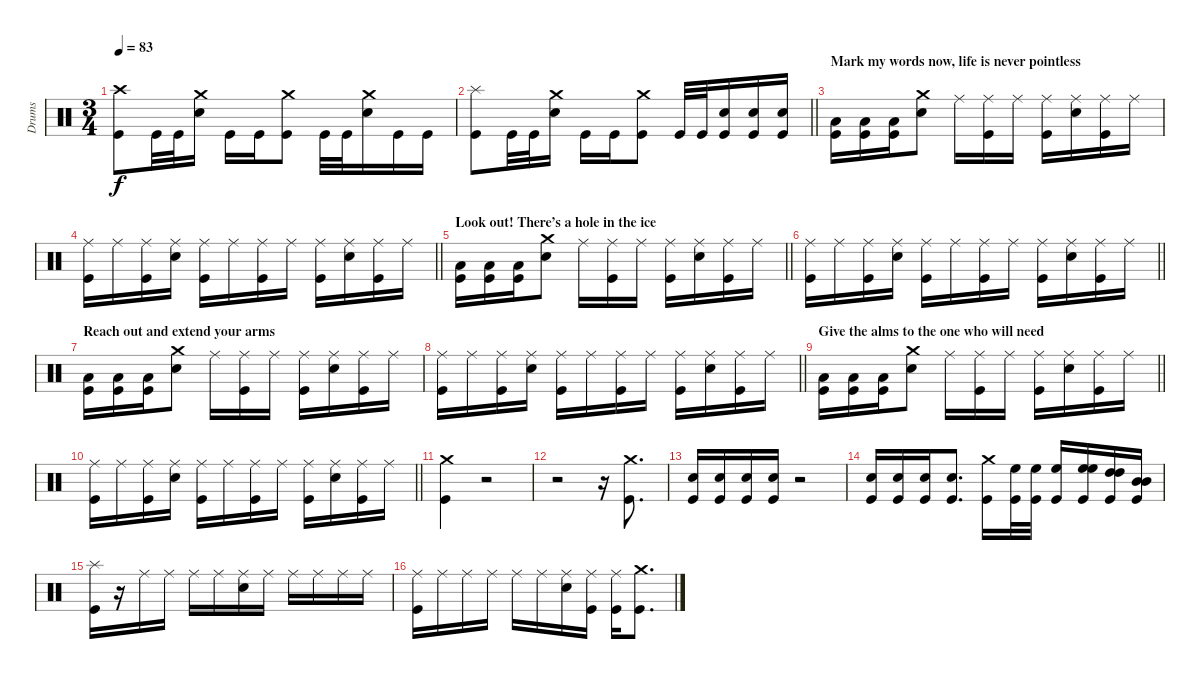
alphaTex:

\track ("Drums" "Drums") {instrument percussion}
\staff {score}
\articulation defaults
\ts (3 4)
\tempo 83
\clef neutral
\ks c
("Crash high (hit)" "Kick (hit)").8{dy f} "Kick (hit)".32 "Kick (hit)".32 ("Crash medium (hit)" "Snare (hit) 2").16 "Kick (hit)".16 "Kick (hit)".16 ("Crash medium (hit)" "Kick (hit)").8 "Kick (hit)".32 "Kick (hit)".32 ("Crash medium (hit)" "Snare (hit) 2").16 "Kick (hit)".16 "Kick (hit)".16 |
\barLineRight lightlight
("Splash (hit)" "Kick (hit)").8 "Kick (hit)".32 "Kick (hit)".32 ("Crash medium (hit)" "Snare (hit) 2").16 "Kick (hit)".16 "Kick (hit)".16 ("Crash medium (hit)" "Kick (hit)").8 "Kick (hit)".32 "Kick (hit)".32 ("Snare (hit) 2" "Kick (hit)").16 ("Snare (hit) 2" "Kick (hit)").16 ("Snare (hit) 2" "Kick (hit)").16 |
\section ("" "Mark my words now, life is never pointless")
("Low Tom (hit)" "Kick (hit)").16 ("Low Tom (hit)" "Kick (hit)").16 ("Low Tom (hit)" "Kick (hit)").16 ("Crash medium (hit)" "Snare (hit) 2").8 "Ride (middle)".16 ("Ride (middle)" "Kick (hit)").16 "Ride (middle)".16 ("Ride (middle)" "Kick (hit)").16 ("Ride (middle)" "Snare (hit) 2").16 ("Ride (middle)" "Kick (hit)").16 "Ride (middle)".16 |
\barLineRight lightlight
("Ride (middle)" "Kick (hit)").16 "Ride (middle)".16 ("Ride (middle)" "Kick (hit)").16 ("Ride (middle)" "Snare (hit) 2").16 ("Ride (middle)" "Kick (hit)").16 "Ride (middle)".16 ("Ride (middle)" "Kick (hit)").16 "Ride (middle)".16 ("Ride (middle)" "Kick (hit)").16 ("Ride (middle)" "Snare (hit) 2").16 ("Ride (middle)" "Kick (hit)").16 "Ride (middle)".16 |
\section ("" "Look out! There’s a hole in the ice")
\barLineRight lightlight
("Low Tom (hit)" "Kick (hit)").16 ("Low Tom (hit)" "Kick (hit)").16 ("Low Tom (hit)" "Kick (hit)").16 ("Crash medium (hit)" "Snare (hit) 2").8 "Ride (middle)".16 ("Ride (middle)" "Kick (hit)").16 "Ride (middle)".16 ("Ride (middle)" "Kick (hit)").16 ("Ride (middle)" "Snare (hit) 2").16 ("Ride (middle)" "Kick (hit)").16 "Ride (middle)".16 |
\barLineRight lightlight
("Ride (middle)" "Kick (hit)").16 "Ride (middle)".16 ("Ride (middle)" "Kick (hit)").16 ("Ride (middle)" "Snare (hit) 2").16 ("Ride (middle)" "Kick (hit)").16 "Ride (middle)".16 ("Ride (middle)" "Kick (hit)").16 "Ride (middle)".16 ("Ride (middle)" "Kick (hit)").16 ("Ride (middle)" "Snare (hit) 2").16 ("Ride (middle)" "Kick (hit)").16 "Ride (middle)".16 |
\section ("" "Reach out and extend your arms")
("Low Tom (hit)" "Kick (hit)").16 ("Low Tom (hit)" "Kick (hit)").16 ("Low Tom (hit)" "Kick (hit)").16 ("Crash medium (hit)" "Snare (hit) 2").8 "Ride (middle)".16 ("Ride (middle)" "Kick (hit)").16 "Ride (middle)".16 ("Ride (middle)" "Kick (hit)").16 ("Ride (middle)" "Snare (hit) 2").16 ("Ride (middle)" "Kick (hit)").16 "Ride (middle)".16 |
\barLineRight lightlight
("Ride (middle)" "Kick (hit)").16 "Ride (middle)".16 ("Ride (middle)" "Kick (hit)").16 ("Ride (middle)" "Snare (hit) 2").16 ("Ride (middle)" "Kick (hit)").16 "Ride (middle)".16 ("Ride (middle)" "Kick (hit)").16 "Ride (middle)".16 ("Ride (middle)" "Kick (hit)").16 ("Ride (middle)" "Snare (hit) 2").16 ("Ride (middle)" "Kick (hit)").16 "Ride (middle)".16 |
\section ("" "Give the alms to the one who will need")
\barLineRight lightlight
("Low Tom (hit)" "Kick (hit)").16 ("Low Tom (hit)" "Kick (hit)").16 ("Low Tom (hit)" "Kick (hit)").16 ("Crash medium (hit)" "Snare (hit) 2").8 "Ride (middle)".16 ("Ride (middle)" "Kick (hit)").16 "Ride (middle)".16 ("Ride (middle)" "Kick (hit)").16 ("Ride (middle)" "Snare (hit) 2").16 ("Ride (middle)" "Kick (hit)").16 "Ride (middle)".16 |
\barLineRight lightlight
("Ride (middle)" "Kick (hit)").16 "Ride (middle)".16 ("Ride (middle)" "Kick (hit)").16 ("Ride (middle)" "Snare (hit) 2").16 ("Ride (middle)" "Kick (hit)").16 "Ride (middle)".16 ("Ride (middle)" "Kick (hit)").16 "Ride (middle)".16 ("Ride (middle)" "Kick (hit)").16 ("Ride (middle)" "Snare (hit) 2").16 ("Ride (middle)" "Kick (hit)").16 "Ride (middle)".16 |
("Crash medium (hit)" "Kick (hit)").4 r.2 |
r.2 r.16 ("Crash medium (hit)" "Kick (hit)").8{d} |
("Snare (hit) 2" "Kick (hit)").16 ("Snare (hit) 2" "Kick (hit)").16 ("Snare (hit) 2" "Kick (hit)").16 ("Snare (hit) 2" "Kick (hit)").16 r.2 |
("Snare (hit) 2" "Kick (hit)").16 ("Snare (hit) 2" "Kick (hit)").16 ("Snare (hit) 2" "Kick (hit)").16 ("Snare (hit) 2" "Kick (hit)").8{d} ("Crash medium (hit)" "Kick (hit)").16 ("High Floor Tom (hit)" "Kick (hit)").32 ("High Floor Tom (hit)" "Kick (hit)").32 ("High Floor Tom (hit)" "Kick (hit)").16 ("High Floor Tom (hit)" "High Floor Tom (hit)" "Kick (hit)").16 ("High Tom (hit)" "High Tom (hit)" "Kick (hit)").16 ("Mid Tom (hit)" "Mid Tom (hit)" "Kick (hit)").16 |
("Splash (hit)" "Kick (hit)").16 r.16 "Ride (middle)".16 "Ride (middle)".16 "Ride (middle)".16 "Ride (middle)".16 ("Ride (middle)" "Snare (hit) 2").16 "Ride (middle)".16 "Ride (middle)".16 "Ride (middle)".16 "Ride (middle)".16 "Ride (middle)".16 |
("Ride (middle)" "Kick (hit)").16 "Ride (middle)".16 "Ride (middle)".16 "Ride (middle)".16 "Ride (middle)".16 "Ride (middle)".16 ("Ride (middle)" "Snare (hit) 2").16 ("Ride (middle)" "Kick (hit)").16 ("Ride (middle)" "Kick (hit)").16 ("Crash medium (hit)" "Kick (hit)").8{d}
